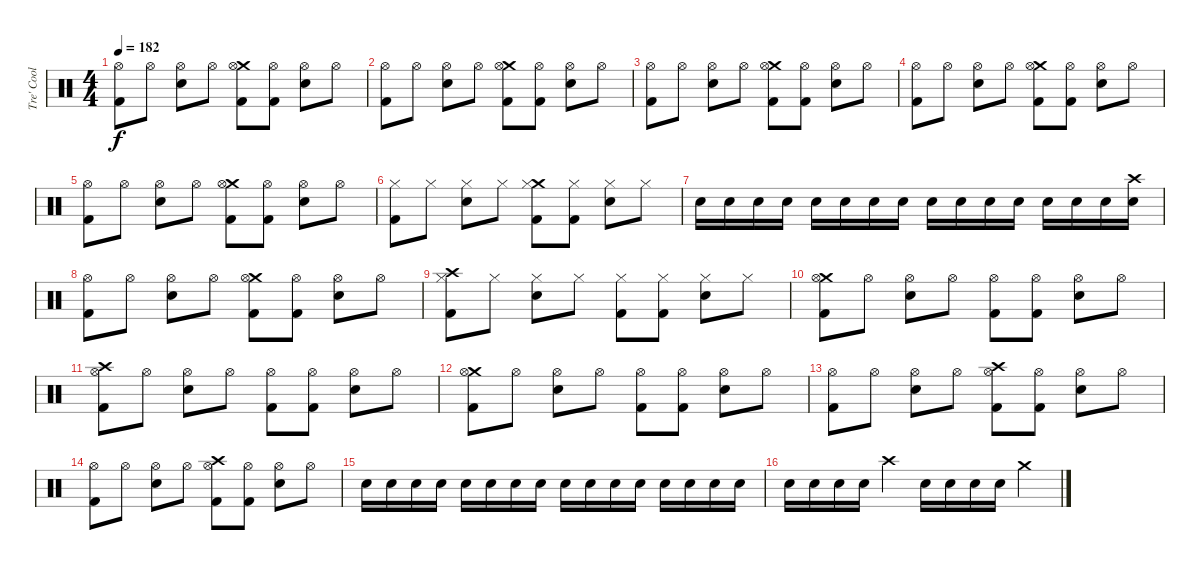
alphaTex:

\track ("Tre' Cool (DRUMS)!!!!!!!!!" "Tre' Cool ") {instrument percussion}
\staff {score}
\articulation defaults
\ts (4 4)
\tempo 182
\clef neutral
\ks c
("Hi-Hat (open)" "Kick (hit) 2").8{dy f} "Hi-Hat (open)".8 ("Hi-Hat (open)" "Snare (hit) 2").8 "Hi-Hat (open)".8 ("Crash medium (hit)" "Hi-Hat (open)" "Kick (hit) 2").8 ("Hi-Hat (open)" "Kick (hit) 2").8 ("Hi-Hat (open)" "Snare (hit) 2").8 "Hi-Hat (open)".8 |
("Hi-Hat (open)" "Kick (hit) 2").8 "Hi-Hat (open)".8 ("Hi-Hat (open)" "Snare (hit) 2").8 "Hi-Hat (open)".8 ("Crash medium (hit)" "Hi-Hat (open)" "Kick (hit) 2").8 ("Hi-Hat (open)" "Kick (hit) 2").8 ("Hi-Hat (open)" "Snare (hit) 2").8 "Hi-Hat (open)".8 |
("Hi-Hat (open)" "Kick (hit) 2").8 "Hi-Hat (open)".8 ("Hi-Hat (open)" "Snare (hit) 2").8 "Hi-Hat (open)".8 ("Crash medium (hit)" "Hi-Hat (open)" "Kick (hit) 2").8 ("Hi-Hat (open)" "Kick (hit) 2").8 ("Hi-Hat (open)" "Snare (hit) 2").8 "Hi-Hat (open)".8 |
("Hi-Hat (open)" "Kick (hit) 2").8 "Hi-Hat (open)".8 ("Hi-Hat (open)" "Snare (hit) 2").8 "Hi-Hat (open)".8 ("Crash medium (hit)" "Hi-Hat (open)" "Kick (hit) 2").8 ("Hi-Hat (open)" "Kick (hit) 2").8 ("Hi-Hat (open)" "Snare (hit) 2").8 "Hi-Hat (open)".8 |
("Hi-Hat (open)" "Kick (hit) 2").8 "Hi-Hat (open)".8 ("Hi-Hat (open)" "Snare (hit) 2").8 "Hi-Hat (open)".8 ("Crash medium (hit)" "Hi-Hat (open)" "Kick (hit) 2").8 ("Hi-Hat (open)" "Kick (hit) 2").8 ("Hi-Hat (open)" "Snare (hit) 2").8 "Hi-Hat (open)".8 |
("Hi-Hat (closed)" "Kick (hit) 2").8 "Hi-Hat (closed)".8 ("Hi-Hat (closed)" "Snare (hit) 2").8 "Hi-Hat (closed)".8 ("Crash medium (hit)" "Hi-Hat (closed)" "Kick (hit) 2").8 ("Hi-Hat (closed)" "Kick (hit) 2").8 ("Hi-Hat (closed)" "Snare (hit) 2").8 "Hi-Hat (closed)".8 |
"Snare (hit) 2".16 "Snare (hit) 2".16 "Snare (hit) 2".16 "Snare (hit) 2".16 "Snare (hit) 2".16 "Snare (hit) 2".16 "Snare (hit) 2".16 "Snare (hit) 2".16 "Snare (hit) 2".16 "Snare (hit) 2".16 "Snare (hit) 2".16 "Snare (hit) 2".16 "Snare (hit) 2".16 "Snare (hit) 2".16 "Snare (hit) 2".16 ("Crash high (hit)" "Snare (hit) 2").16 |
("Hi-Hat (open)" "Kick (hit) 2").8 "Hi-Hat (open)".8 ("Hi-Hat (open)" "Snare (hit) 2").8 "Hi-Hat (open)".8 ("Crash medium (hit)" "Hi-Hat (open)" "Kick (hit) 2").8 ("Hi-Hat (open)" "Kick (hit) 2").8 ("Hi-Hat (open)" "Snare (hit) 2").8 "Hi-Hat (open)".8 |
("Crash high (hit)" "Hi-Hat (closed)" "Kick (hit) 2").8 "Hi-Hat (closed)".8 ("Hi-Hat (closed)" "Snare (hit) 2").8 "Hi-Hat (closed)".8 ("Hi-Hat (closed)" "Kick (hit) 2").8 ("Hi-Hat (closed)" "Kick (hit) 2").8 ("Hi-Hat (closed)" "Snare (hit) 2").8 "Hi-Hat (closed)".8 |
("Crash medium (hit)" "Hi-Hat (open)" "Kick (hit) 2").8 "Hi-Hat (open)".8 ("Hi-Hat (open)" "Snare (hit) 2").8 "Hi-Hat (open)".8 ("Hi-Hat (open)" "Kick (hit) 2").8 ("Hi-Hat (open)" "Kick (hit) 2").8 ("Hi-Hat (open)" "Snare (hit) 2").8 "Hi-Hat (open)".8 |
("Crash high (hit)" "Hi-Hat (open)" "Kick (hit) 2").8 "Hi-Hat (open)".8 ("Hi-Hat (open)" "Snare (hit) 2").8 "Hi-Hat (open)".8 ("Hi-Hat (open)" "Kick (hit) 2").8 ("Hi-Hat (open)" "Kick (hit) 2").8 ("Hi-Hat (open)" "Snare (hit) 2").8 "Hi-Hat (open)".8 |
("Crash medium (hit)" "Hi-Hat (open)" "Kick (hit) 2").8 "Hi-Hat (open)".8 ("Hi-Hat (open)" "Snare (hit) 2").8 "Hi-Hat (open)".8 ("Hi-Hat (open)" "Kick (hit) 2").8 ("Hi-Hat (open)" "Kick (hit) 2").8 ("Hi-Hat (open)" "Snare (hit) 2").8 "Hi-Hat (open)".8 |
("Hi-Hat (open)" "Kick (hit) 2").8 "Hi-Hat (open)".8 ("Hi-Hat (open)" "Snare (hit) 2").8 "Hi-Hat (open)".8 ("Crash high (hit)" "Hi-Hat (open)" "Kick (hit) 2").8 ("Hi-Hat (open)" "Kick (hit) 2").8 ("Hi-Hat (open)" "Snare (hit) 2").8 "Hi-Hat (open)".8 |
("Hi-Hat (open)" "Kick (hit) 2").8 "Hi-Hat (open)".8 ("Hi-Hat (open)" "Snare (hit) 2").8 "Hi-Hat (open)".8 ("Crash high (hit)" "Hi-Hat (open)" "Kick (hit) 2").8 ("Hi-Hat (open)" "Kick (hit) 2").8 ("Hi-Hat (open)" "Snare (hit) 2").8 "Hi-Hat (open)".8 |
"Snare (hit) 2".16 "Snare (hit) 2".16 "Snare (hit) 2".16 "Snare (hit) 2".16 "Snare (hit) 2".16 "Snare (hit) 2".16 "Snare (hit) 2".16 "Snare (hit) 2".16 "Snare (hit) 2".16 "Snare (hit) 2".16 "Snare (hit) 2".16 "Snare (hit) 2".16 "Snare (hit) 2".16 "Snare (hit) 2".16 "Snare (hit) 2".16 "Snare (hit) 2".16 |
"Snare (hit) 2".16 "Snare (hit) 2".16 "Snare (hit) 2".16 "Snare (hit) 2".16 "Crash high (hit)".4 "Snare (hit) 2".16 "Snare (hit) 2".16 "Snare (hit) 2".16 "Snare (hit) 2".16 "Crash medium (hit)".4
